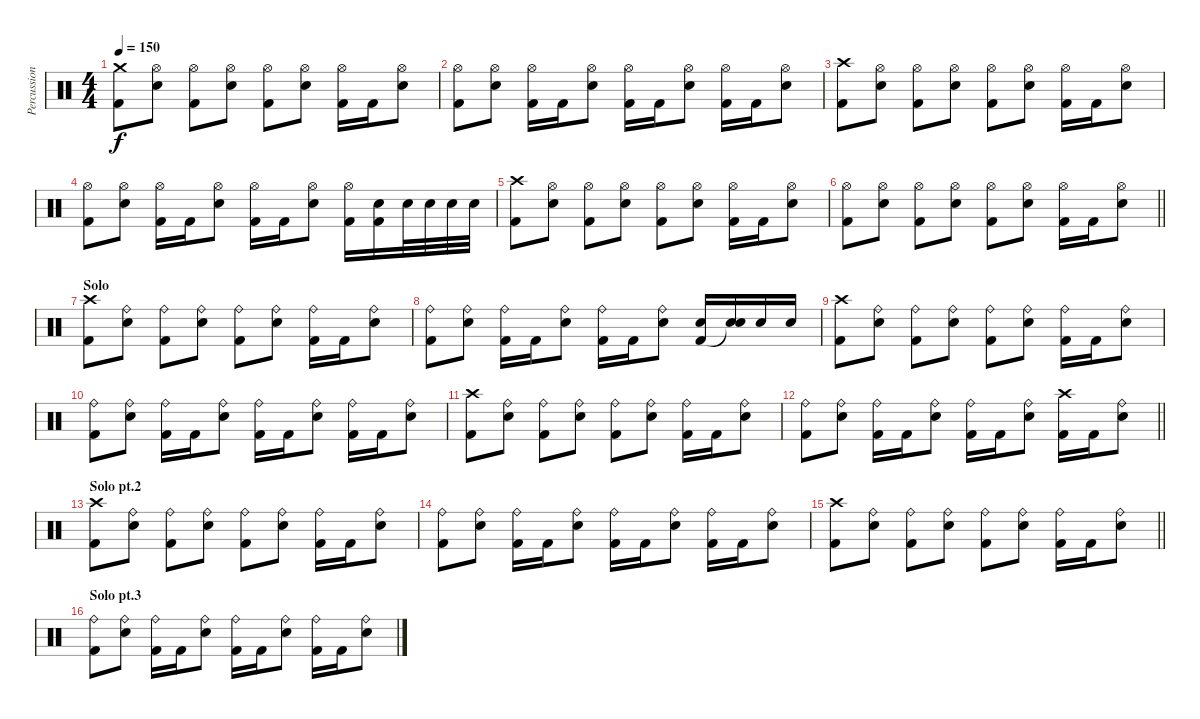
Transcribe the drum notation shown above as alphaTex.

\track ("Percussion" "Percussion") {instrument percussion}
\staff {score}
\articulation defaults
\ts (4 4)
\tempo 150
\clef neutral
\ks c
("Crash medium (hit)" "Kick (hit) 2").8{dy f} ("Hi-Hat (open)" "Electric Snare (hit)").8 ("Hi-Hat (open)" "Kick (hit) 2").8 ("Hi-Hat (open)" "Electric Snare (hit)").8 ("Hi-Hat (open)" "Kick (hit) 2").8 ("Hi-Hat (open)" "Electric Snare (hit)").8 ("Hi-Hat (open)" "Kick (hit) 2").16 "Kick (hit) 2".16 ("Hi-Hat (open)" "Electric Snare (hit)").8 |
("Hi-Hat (open)" "Kick (hit) 2").8 ("Hi-Hat (open)" "Electric Snare (hit)").8 ("Hi-Hat (open)" "Kick (hit) 2").16 "Kick (hit) 2".16 ("Hi-Hat (open)" "Electric Snare (hit)").8 ("Hi-Hat (open)" "Kick (hit) 2").16 "Kick (hit) 2".16 ("Hi-Hat (open)" "Electric Snare (hit)").8 ("Hi-Hat (open)" "Kick (hit) 2").16 "Kick (hit) 2".16 ("Hi-Hat (open)" "Electric Snare (hit)").8 |
("Crash high (hit)" "Kick (hit) 2").8 ("Hi-Hat (open)" "Electric Snare (hit)").8 ("Hi-Hat (open)" "Kick (hit) 2").8 ("Hi-Hat (open)" "Electric Snare (hit)").8 ("Hi-Hat (open)" "Kick (hit) 2").8 ("Hi-Hat (open)" "Electric Snare (hit)").8 ("Hi-Hat (open)" "Kick (hit) 2").16 "Kick (hit) 2".16 ("Hi-Hat (open)" "Electric Snare (hit)").8 |
("Hi-Hat (open)" "Kick (hit) 2").8 ("Hi-Hat (open)" "Electric Snare (hit)").8 ("Hi-Hat (open)" "Kick (hit) 2").16 "Kick (hit) 2".16 ("Hi-Hat (open)" "Electric Snare (hit)").8 ("Hi-Hat (open)" "Kick (hit) 2").16 "Kick (hit) 2".16 ("Hi-Hat (open)" "Electric Snare (hit)").8 ("Hi-Hat (open)" "Kick (hit) 2").16 ("Electric Snare (hit)" "Kick (hit) 2").16 "Electric Snare (hit)".32 "Electric Snare (hit)".32 "Electric Snare (hit)".32 "Electric Snare (hit)".32 |
("Crash high (hit)" "Kick (hit) 2").8 ("Hi-Hat (open)" "Electric Snare (hit)").8 ("Hi-Hat (open)" "Kick (hit) 2").8 ("Hi-Hat (open)" "Electric Snare (hit)").8 ("Hi-Hat (open)" "Kick (hit) 2").8 ("Hi-Hat (open)" "Electric Snare (hit)").8 ("Hi-Hat (open)" "Kick (hit) 2").16 "Kick (hit) 2".16 ("Hi-Hat (open)" "Electric Snare (hit)").8 |
\barLineRight lightlight
("Hi-Hat (open)" "Kick (hit) 2").8 ("Hi-Hat (open)" "Electric Snare (hit)").8 ("Hi-Hat (open)" "Kick (hit) 2").8 ("Hi-Hat (open)" "Electric Snare (hit)").8 ("Hi-Hat (open)" "Kick (hit) 2").8 ("Hi-Hat (open)" "Electric Snare (hit)").8 ("Hi-Hat (open)" "Kick (hit) 2").16 "Kick (hit) 2".16 ("Hi-Hat (open)" "Electric Snare (hit)").8 |
\section ("" "Solo")
("Crash high (hit)" "Kick (hit) 2").8 ("Ride (bell)" "Electric Snare (hit)").8 ("Ride (bell)" "Kick (hit) 2").8 ("Ride (bell)" "Electric Snare (hit)").8 ("Ride (bell)" "Kick (hit) 2").8 ("Ride (bell)" "Electric Snare (hit)").8 ("Ride (bell)" "Kick (hit) 2").16 "Kick (hit) 2".16 ("Ride (bell)" "Electric Snare (hit)").8 |
("Ride (bell)" "Kick (hit) 2").8 ("Ride (bell)" "Electric Snare (hit)").8 ("Ride (bell)" "Kick (hit) 2").16 "Kick (hit) 2".16 ("Ride (bell)" "Electric Snare (hit)").8 ("Ride (bell)" "Kick (hit) 2").16 "Kick (hit) 2".16 ("Ride (bell)" "Electric Snare (hit)").8 ("Electric Snare (hit)" "Kick (hit) 2").16 ("Electric Snare (hit)" "Snare (hit)"{t}).16 "Electric Snare (hit)".16 "Electric Snare (hit)".16 |
("Crash high (hit)" "Kick (hit) 2").8 ("Ride (bell)" "Electric Snare (hit)").8 ("Ride (bell)" "Kick (hit) 2").8 ("Ride (bell)" "Electric Snare (hit)").8 ("Ride (bell)" "Kick (hit) 2").8 ("Ride (bell)" "Electric Snare (hit)").8 ("Ride (bell)" "Kick (hit) 2").16 "Kick (hit) 2".16 ("Ride (bell)" "Electric Snare (hit)").8 |
("Ride (bell)" "Kick (hit) 2").8 ("Ride (bell)" "Electric Snare (hit)").8 ("Ride (bell)" "Kick (hit) 2").16 "Kick (hit) 2".16 ("Ride (bell)" "Electric Snare (hit)").8 ("Ride (bell)" "Kick (hit) 2").16 "Kick (hit) 2".16 ("Ride (bell)" "Electric Snare (hit)").8 ("Ride (bell)" "Kick (hit) 2").16 "Kick (hit) 2".16 ("Ride (bell)" "Electric Snare (hit)").8 |
("Crash high (hit)" "Kick (hit) 2").8 ("Ride (bell)" "Electric Snare (hit)").8 ("Ride (bell)" "Kick (hit) 2").8 ("Ride (bell)" "Electric Snare (hit)").8 ("Ride (bell)" "Kick (hit) 2").8 ("Ride (bell)" "Electric Snare (hit)").8 ("Ride (bell)" "Kick (hit) 2").16 "Kick (hit) 2".16 ("Ride (bell)" "Electric Snare (hit)").8 |
\barLineRight lightlight
("Ride (bell)" "Kick (hit) 2").8 ("Ride (bell)" "Electric Snare (hit)").8 ("Ride (bell)" "Kick (hit) 2").16 "Kick (hit) 2".16 ("Ride (bell)" "Electric Snare (hit)").8 ("Ride (bell)" "Kick (hit) 2").16 "Kick (hit) 2".16 ("Ride (bell)" "Electric Snare (hit)").8 ("Crash high (hit)" "Kick (hit) 2").16 "Kick (hit) 2".16 ("Ride (bell)" "Electric Snare (hit)").8 |
\section ("" "Solo pt.2")
("Crash high (hit)" "Kick (hit) 2").8 ("Ride (bell)" "Electric Snare (hit)").8 ("Ride (bell)" "Kick (hit) 2").8 ("Ride (bell)" "Electric Snare (hit)").8 ("Ride (bell)" "Kick (hit) 2").8 ("Ride (bell)" "Electric Snare (hit)").8 ("Ride (bell)" "Kick (hit) 2").16 "Kick (hit) 2".16 ("Ride (bell)" "Electric Snare (hit)").8 |
("Ride (bell)" "Kick (hit) 2").8 ("Ride (bell)" "Electric Snare (hit)").8 ("Ride (bell)" "Kick (hit) 2").16 "Kick (hit) 2".16 ("Ride (bell)" "Electric Snare (hit)").8 ("Ride (bell)" "Kick (hit) 2").16 "Kick (hit) 2".16 ("Ride (bell)" "Electric Snare (hit)").8 ("Ride (bell)" "Kick (hit) 2").16 "Kick (hit) 2".16 ("Ride (bell)" "Electric Snare (hit)").8 |
\barLineRight lightlight
("Crash high (hit)" "Kick (hit) 2").8 ("Ride (bell)" "Electric Snare (hit)").8 ("Ride (bell)" "Kick (hit) 2").8 ("Ride (bell)" "Electric Snare (hit)").8 ("Ride (bell)" "Kick (hit) 2").8 ("Ride (bell)" "Electric Snare (hit)").8 ("Ride (bell)" "Kick (hit) 2").16 "Kick (hit) 2".16 ("Ride (bell)" "Electric Snare (hit)").8 |
\section ("" "Solo pt.3")
("Ride (bell)" "Kick (hit) 2").8 ("Ride (bell)" "Electric Snare (hit)").8 ("Ride (bell)" "Kick (hit) 2").16 "Kick (hit) 2".16 ("Ride (bell)" "Electric Snare (hit)").8 ("Ride (bell)" "Kick (hit) 2").16 "Kick (hit) 2".16 ("Ride (bell)" "Electric Snare (hit)").8 ("Ride (bell)" "Kick (hit) 2").16 "Kick (hit) 2".16 ("Ride (bell)" "Electric Snare (hit)").8
